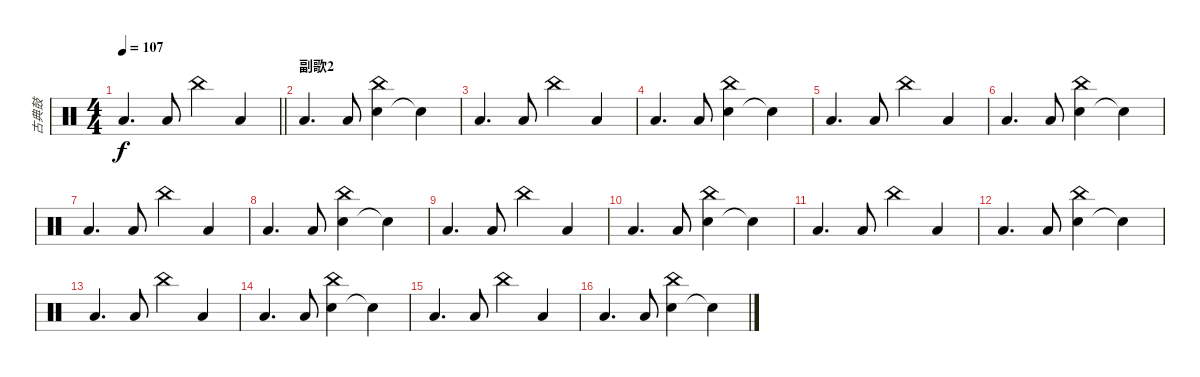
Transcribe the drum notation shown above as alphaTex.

\track ("古典鼓" "古典鼓") {instrument percussion}
\staff {score}
\articulation defaults
\ts (4 4)
\tempo 107
\clef neutral
\barLineRight lightlight
\ks c "Low Floor Tom (hit)".4{d dy f} "Low Floor Tom (hit)".8 "China (hit)".4 "Low Floor Tom (hit)".4
|
\section ("" "副歌2")
"Low Floor Tom (hit)".4{d} "Low Floor Tom (hit)".8 ("Hand Clap (hit)" "China (hit)").4 "Snare (hit)"{t}.4 |
"Low Floor Tom (hit)".4{d} "Low Floor Tom (hit)".8 "China (hit)".4 "Low Floor Tom (hit)".4 |
"Low Floor Tom (hit)".4{d} "Low Floor Tom (hit)".8 ("Hand Clap (hit)" "China (hit)").4 "Snare (hit)"{t}.4 |
"Low Floor Tom (hit)".4{d} "Low Floor Tom (hit)".8 "China (hit)".4 "Low Floor Tom (hit)".4 |
"Low Floor Tom (hit)".4{d} "Low Floor Tom (hit)".8 ("Hand Clap (hit)" "China (hit)").4 "Snare (hit)"{t}.4 |
"Low Floor Tom (hit)".4{d} "Low Floor Tom (hit)".8 "China (hit)".4 "Low Floor Tom (hit)".4 |
"Low Floor Tom (hit)".4{d} "Low Floor Tom (hit)".8 ("Hand Clap (hit)" "China (hit)").4 "Snare (hit)"{t}.4 |
"Low Floor Tom (hit)".4{d} "Low Floor Tom (hit)".8 "China (hit)".4 "Low Floor Tom (hit)".4 |
"Low Floor Tom (hit)".4{d} "Low Floor Tom (hit)".8 ("Hand Clap (hit)" "China (hit)").4 "Snare (hit)"{t}.4 |
"Low Floor Tom (hit)".4{d} "Low Floor Tom (hit)".8 "China (hit)".4 "Low Floor Tom (hit)".4 |
"Low Floor Tom (hit)".4{d} "Low Floor Tom (hit)".8 ("Hand Clap (hit)" "China (hit)").4 "Snare (hit)"{t}.4 |
"Low Floor Tom (hit)".4{d} "Low Floor Tom (hit)".8 "China (hit)".4 "Low Floor Tom (hit)".4 |
"Low Floor Tom (hit)".4{d} "Low Floor Tom (hit)".8 ("Hand Clap (hit)" "China (hit)").4 "Snare (hit)"{t}.4 |
"Low Floor Tom (hit)".4{d} "Low Floor Tom (hit)".8 "China (hit)".4 "Low Floor Tom (hit)".4 |
"Low Floor Tom (hit)".4{d} "Low Floor Tom (hit)".8 ("Hand Clap (hit)" "China (hit)").4 "Snare (hit)"{t}.4
